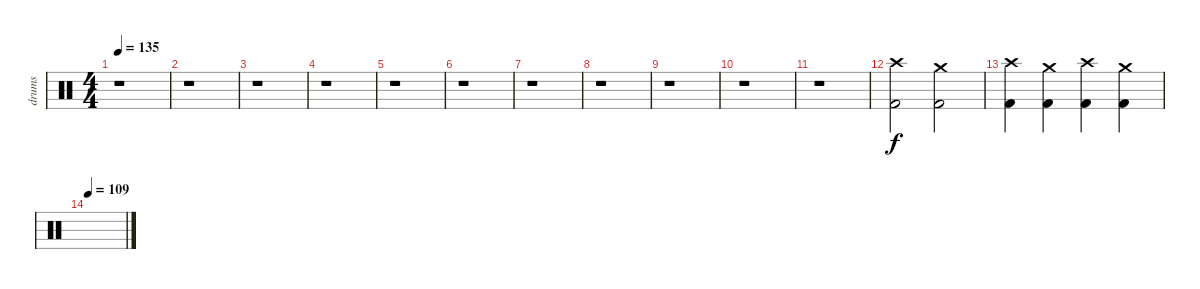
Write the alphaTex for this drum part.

\track ("drums" "drums") {instrument percussion}
\staff {score}
\articulation defaults
\ts (4 4)
\tempo 135
\clef neutral
\ks c
r.1{dy f} |
r.1 |
r.1 |
r.1 |
r.1 |
r.1 |
r.1 |
r.1 |
r.1 |
r.1 |
r.1 |
("Crash high (hit)" "Kick (hit) 2").2 ("Crash medium (hit)" "Kick (hit) 2").2 |
("Crash high (hit)" "Kick (hit) 2").4 ("Crash medium (hit)" "Kick (hit) 2").4 ("Crash high (hit)" "Kick (hit) 2").4 ("Crash medium (hit)" "Kick (hit) 2").4 |
\tempo 109
